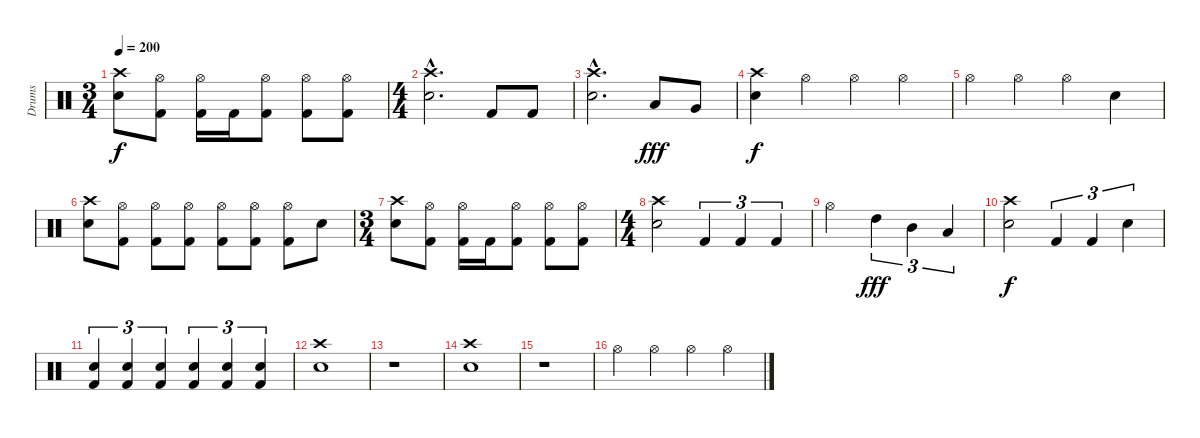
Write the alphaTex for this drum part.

\track ("Drums" "Drums") {instrument percussion}
\staff {score}
\articulation defaults
\ts (3 4)
\tempo 200
\clef neutral
\ks c
("Crash high (hit)" "Snare (hit) 2").8{dy f} ("Hi-Hat (open)" "Kick (hit) 2").8 ("Hi-Hat (open)" "Kick (hit) 2").16 "Kick (hit) 2".16 ("Hi-Hat (open)" "Kick (hit) 2").8 ("Hi-Hat (open)" "Kick (hit) 2").8 ("Hi-Hat (open)" "Kick (hit) 2").8 |
\ts (4 4)
("Crash high (hit)"{hac} "Snare (hit) 2"{hac}).2{d} "Kick (hit) 2".8 "Kick (hit) 2".8 |
("Crash high (hit)"{hac} "Snare (hit) 2"{hac}).2{d} "Low Tom (hit)".8{dy fff} "Very Low Tom (hit)".8 |
("Crash high (hit)" "Snare (hit) 2").4{dy f} "Hi-Hat (open)".4 "Hi-Hat (open)".4 "Hi-Hat (open)".4 |
"Hi-Hat (open)".4 "Hi-Hat (open)".4 "Hi-Hat (open)".4 "Snare (hit) 2".4 |
("Crash high (hit)" "Snare (hit) 2").8 ("Hi-Hat (open)" "Kick (hit) 2").8 ("Hi-Hat (open)" "Kick (hit) 2").8 ("Hi-Hat (open)" "Kick (hit) 2").8 ("Hi-Hat (open)" "Kick (hit) 2").8 ("Hi-Hat (open)" "Kick (hit) 2").8 ("Hi-Hat (open)" "Kick (hit) 2").8 "Snare (hit) 2".8 |
\ts (3 4)
("Crash high (hit)" "Snare (hit) 2").8 ("Hi-Hat (open)" "Kick (hit) 2").8 ("Hi-Hat (open)" "Kick (hit) 2").16 "Kick (hit) 2".16 ("Hi-Hat (open)" "Kick (hit) 2").8 ("Hi-Hat (open)" "Kick (hit) 2").8 ("Hi-Hat (open)" "Kick (hit) 2").8 |
\ts (4 4)
("Crash high (hit)" "Snare (hit) 2").2 "Kick (hit) 2".4{tu (3 2)} "Kick (hit) 2".4{tu (3 2)} "Kick (hit) 2".4{tu (3 2)} |
"Hi-Hat (open)".2 "High Tom (hit)".4{tu (3 2) dy fff} "Mid Tom (hit)".4{tu (3 2)} "Low Tom (hit)".4{tu (3 2)} |
("Crash high (hit)" "Snare (hit) 2").2{dy f} "Kick (hit) 2".4{tu (3 2)} "Kick (hit) 2".4{tu (3 2)} "Snare (hit) 2".4{tu (3 2)} |
("Snare (hit) 2" "Kick (hit) 2").4{tu (3 2)} ("Snare (hit) 2" "Kick (hit) 2").4{tu (3 2)} ("Snare (hit) 2" "Kick (hit) 2").4{tu (3 2)} ("Snare (hit) 2" "Kick (hit) 2").4{tu (3 2)} ("Snare (hit) 2" "Kick (hit) 2").4{tu (3 2)} ("Snare (hit) 2" "Kick (hit) 2").4{tu (3 2)} |
("Crash high (hit)" "Snare (hit) 2").1 |
r.1 |
("Crash high (hit)" "Snare (hit) 2").1 |
r.1 |
"Hi-Hat (open)".4 "Hi-Hat (open)".4 "Hi-Hat (open)".4 "Hi-Hat (open)".4
